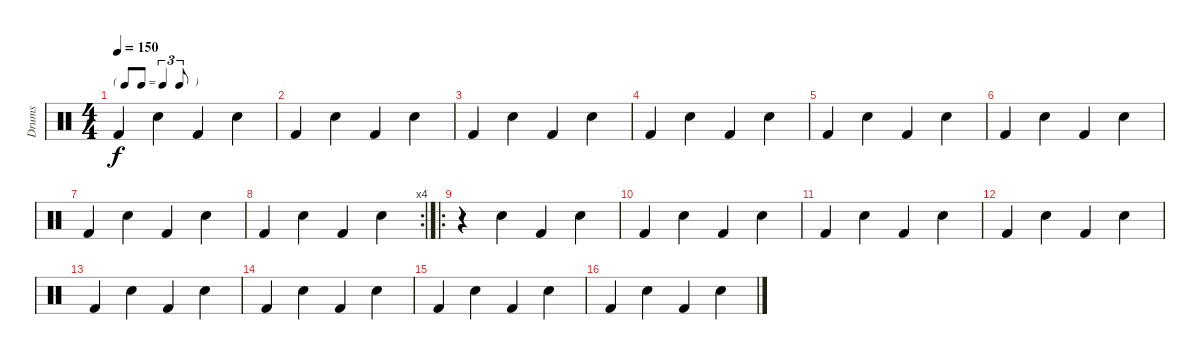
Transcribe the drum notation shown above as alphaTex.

\track ("Drums" "Drums") {instrument percussion}
\staff {score}
\articulation defaults
\ts (4 4)
\tf triplet8th
\tempo 150
\clef neutral
\ks c "Kick (hit) 2".4{dy f} "Snare (hit) 2".4 "Kick (hit) 2".4 "Snare (hit) 2".4
|
"Kick (hit) 2".4 "Snare (hit) 2".4 "Kick (hit) 2".4 "Snare (hit) 2".4 |
"Kick (hit) 2".4 "Snare (hit) 2".4 "Kick (hit) 2".4 "Snare (hit) 2".4 |
"Kick (hit) 2".4 "Snare (hit) 2".4 "Kick (hit) 2".4 "Snare (hit) 2".4 |
"Kick (hit) 2".4 "Snare (hit) 2".4 "Kick (hit) 2".4 "Snare (hit) 2".4 |
"Kick (hit) 2".4 "Snare (hit) 2".4 "Kick (hit) 2".4 "Snare (hit) 2".4 |
"Kick (hit) 2".4 "Snare (hit) 2".4 "Kick (hit) 2".4 "Snare (hit) 2".4 |
\rc 4 "Kick (hit) 2".4 "Snare (hit) 2".4 "Kick (hit) 2".4 "Snare (hit) 2".4
|
\ro
r.4 "Snare (hit) 2".4 "Kick (hit) 2".4 "Snare (hit) 2".4 |
"Kick (hit) 2".4 "Snare (hit) 2".4 "Kick (hit) 2".4 "Snare (hit) 2".4 |
"Kick (hit) 2".4 "Snare (hit) 2".4 "Kick (hit) 2".4 "Snare (hit) 2".4 |
"Kick (hit) 2".4 "Snare (hit) 2".4 "Kick (hit) 2".4 "Snare (hit) 2".4 |
"Kick (hit) 2".4 "Snare (hit) 2".4 "Kick (hit) 2".4 "Snare (hit) 2".4 |
"Kick (hit) 2".4 "Snare (hit) 2".4 "Kick (hit) 2".4 "Snare (hit) 2".4 |
"Kick (hit) 2".4 "Snare (hit) 2".4 "Kick (hit) 2".4 "Snare (hit) 2".4 |
"Kick (hit) 2".4 "Snare (hit) 2".4 "Kick (hit) 2".4 "Snare (hit) 2".4
